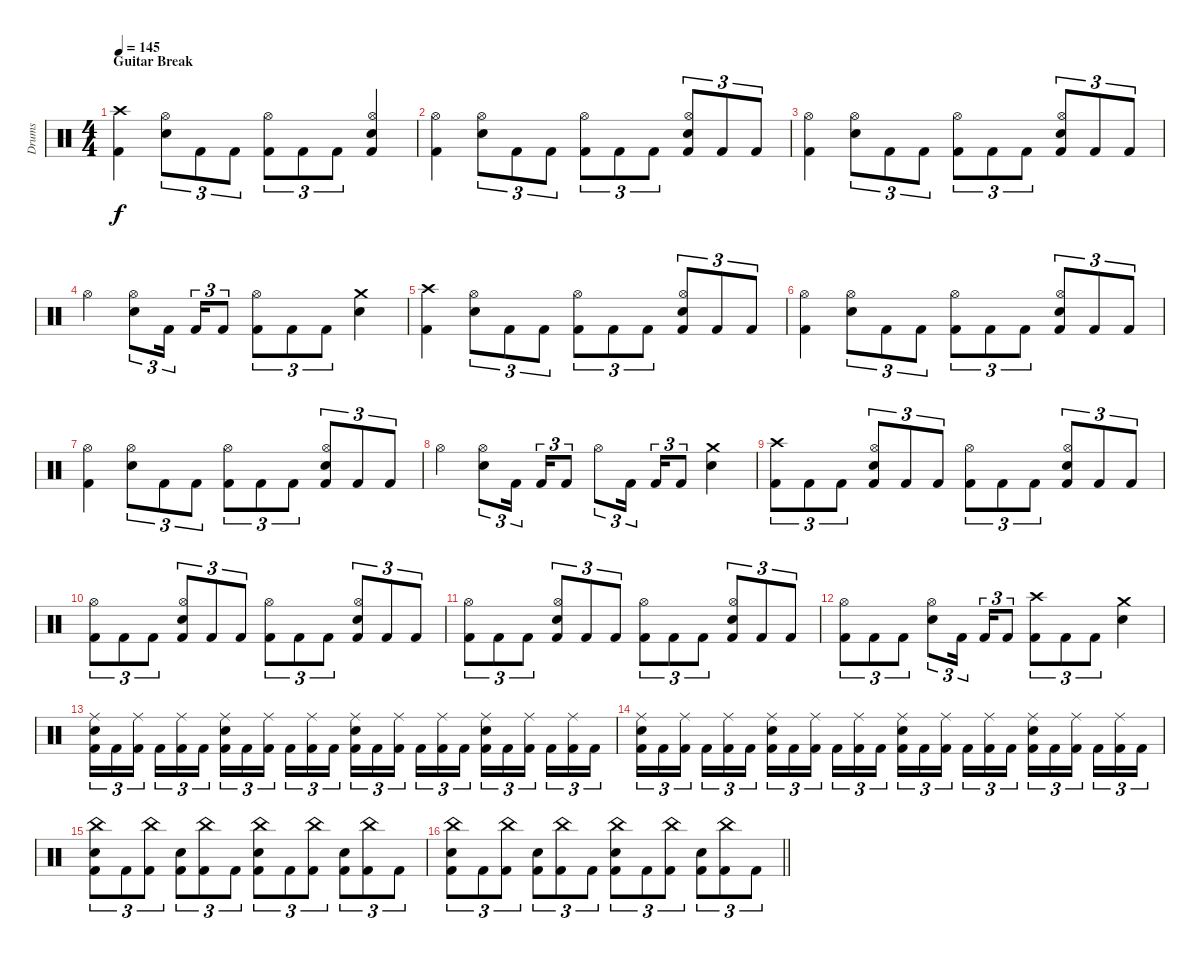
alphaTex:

\track ("Drums" "Drums") {instrument percussion}
\staff {score}
\articulation defaults
\ts (4 4)
\section ("" "Guitar Break")
\tempo 145
\clef neutral
\ks c
("Crash high (hit)" "Kick (hit) 2").4{dy f} ("Hi-Hat (open)" "Electric Snare (hit)").8{tu (3 2)} "Kick (hit) 2".8{tu (3 2)} "Kick (hit) 2".8{tu (3 2)} ("Hi-Hat (open)" "Kick (hit) 2").8{tu (3 2)} "Kick (hit) 2".8{tu (3 2)} "Kick (hit) 2".8{tu (3 2)} ("Hi-Hat (open)" "Electric Snare (hit)" "Kick (hit) 2").4 |
("Hi-Hat (open)" "Kick (hit) 2").4 ("Hi-Hat (open)" "Electric Snare (hit)").8{tu (3 2)} "Kick (hit) 2".8{tu (3 2)} "Kick (hit) 2".8{tu (3 2)} ("Hi-Hat (open)" "Kick (hit) 2").8{tu (3 2)} "Kick (hit) 2".8{tu (3 2)} "Kick (hit) 2".8{tu (3 2)} ("Hi-Hat (open)" "Electric Snare (hit)" "Kick (hit) 2").8{tu (3 2)} "Kick (hit) 2".8{tu (3 2)} "Kick (hit) 2".8{tu (3 2)} |
("Hi-Hat (open)" "Kick (hit) 2").4 ("Hi-Hat (open)" "Electric Snare (hit)").8{tu (3 2)} "Kick (hit) 2".8{tu (3 2)} "Kick (hit) 2".8{tu (3 2)} ("Hi-Hat (open)" "Kick (hit) 2").8{tu (3 2)} "Kick (hit) 2".8{tu (3 2)} "Kick (hit) 2".8{tu (3 2)} ("Hi-Hat (open)" "Electric Snare (hit)" "Kick (hit) 2").8{tu (3 2)} "Kick (hit) 2".8{tu (3 2)} "Kick (hit) 2".8{tu (3 2)} |
"Hi-Hat (open)".4 ("Hi-Hat (open)" "Electric Snare (hit)").8{tu (3 2)} "Kick (hit) 2".16{tu (3 2) beam splitsecondary} "Kick (hit) 2".16{tu (3 2)} "Kick (hit) 2".8{tu (3 2)} ("Hi-Hat (open)" "Kick (hit) 2").8{tu (3 2)} "Kick (hit) 2".8{tu (3 2)} "Kick (hit) 2".8{tu (3 2)} ("Crash medium (hit)" "Electric Snare (hit)").4 |
("Crash high (hit)" "Kick (hit) 2").4 ("Hi-Hat (open)" "Electric Snare (hit)").8{tu (3 2)} "Kick (hit) 2".8{tu (3 2)} "Kick (hit) 2".8{tu (3 2)} ("Hi-Hat (open)" "Kick (hit) 2").8{tu (3 2)} "Kick (hit) 2".8{tu (3 2)} "Kick (hit) 2".8{tu (3 2)} ("Hi-Hat (open)" "Electric Snare (hit)" "Kick (hit) 2").8{tu (3 2)} "Kick (hit) 2".8{tu (3 2)} "Kick (hit) 2".8{tu (3 2)} |
("Hi-Hat (open)" "Kick (hit) 2").4 ("Hi-Hat (open)" "Electric Snare (hit)").8{tu (3 2)} "Kick (hit) 2".8{tu (3 2)} "Kick (hit) 2".8{tu (3 2)} ("Hi-Hat (open)" "Kick (hit) 2").8{tu (3 2)} "Kick (hit) 2".8{tu (3 2)} "Kick (hit) 2".8{tu (3 2)} ("Hi-Hat (open)" "Electric Snare (hit)" "Kick (hit) 2").8{tu (3 2)} "Kick (hit) 2".8{tu (3 2)} "Kick (hit) 2".8{tu (3 2)} |
("Hi-Hat (open)" "Kick (hit) 2").4 ("Hi-Hat (open)" "Electric Snare (hit)").8{tu (3 2)} "Kick (hit) 2".8{tu (3 2)} "Kick (hit) 2".8{tu (3 2)} ("Hi-Hat (open)" "Kick (hit) 2").8{tu (3 2)} "Kick (hit) 2".8{tu (3 2)} "Kick (hit) 2".8{tu (3 2)} ("Hi-Hat (open)" "Electric Snare (hit)" "Kick (hit) 2").8{tu (3 2)} "Kick (hit) 2".8{tu (3 2)} "Kick (hit) 2".8{tu (3 2)} |
"Hi-Hat (open)".4 ("Hi-Hat (open)" "Electric Snare (hit)").8{tu (3 2)} "Kick (hit) 2".16{tu (3 2) beam splitsecondary} "Kick (hit) 2".16{tu (3 2)} "Kick (hit) 2".8{tu (3 2)} "Hi-Hat (open)".8{tu (3 2)} "Kick (hit) 2".16{tu (3 2) beam splitsecondary} "Kick (hit) 2".16{tu (3 2)} "Kick (hit) 2".8{tu (3 2)} ("Crash medium (hit)" "Electric Snare (hit)").4 |
("Crash high (hit)" "Kick (hit) 2").8{tu (3 2)} "Kick (hit) 2".8{tu (3 2)} "Kick (hit) 2".8{tu (3 2)} ("Hi-Hat (open)" "Electric Snare (hit)" "Kick (hit) 2").8{tu (3 2)} "Kick (hit) 2".8{tu (3 2)} "Kick (hit) 2".8{tu (3 2)} ("Hi-Hat (open)" "Kick (hit) 2").8{tu (3 2)} "Kick (hit) 2".8{tu (3 2)} "Kick (hit) 2".8{tu (3 2)} ("Hi-Hat (open)" "Electric Snare (hit)" "Kick (hit) 2").8{tu (3 2)} "Kick (hit) 2".8{tu (3 2)} "Kick (hit) 2".8{tu (3 2)} |
("Hi-Hat (open)" "Kick (hit) 2").8{tu (3 2)} "Kick (hit) 2".8{tu (3 2)} "Kick (hit) 2".8{tu (3 2)} ("Hi-Hat (open)" "Electric Snare (hit)" "Kick (hit) 2").8{tu (3 2)} "Kick (hit) 2".8{tu (3 2)} "Kick (hit) 2".8{tu (3 2)} ("Hi-Hat (open)" "Kick (hit) 2").8{tu (3 2)} "Kick (hit) 2".8{tu (3 2)} "Kick (hit) 2".8{tu (3 2)} ("Hi-Hat (open)" "Electric Snare (hit)" "Kick (hit) 2").8{tu (3 2)} "Kick (hit) 2".8{tu (3 2)} "Kick (hit) 2".8{tu (3 2)} |
("Hi-Hat (open)" "Kick (hit) 2").8{tu (3 2)} "Kick (hit) 2".8{tu (3 2)} "Kick (hit) 2".8{tu (3 2)} ("Hi-Hat (open)" "Electric Snare (hit)" "Kick (hit) 2").8{tu (3 2)} "Kick (hit) 2".8{tu (3 2)} "Kick (hit) 2".8{tu (3 2)} ("Hi-Hat (open)" "Kick (hit) 2").8{tu (3 2)} "Kick (hit) 2".8{tu (3 2)} "Kick (hit) 2".8{tu (3 2)} ("Hi-Hat (open)" "Electric Snare (hit)" "Kick (hit) 2").8{tu (3 2)} "Kick (hit) 2".8{tu (3 2)} "Kick (hit) 2".8{tu (3 2)} |
("Hi-Hat (open)" "Kick (hit) 2").8{tu (3 2)} "Kick (hit) 2".8{tu (3 2)} "Kick (hit) 2".8{tu (3 2)} ("Hi-Hat (open)" "Electric Snare (hit)").8{tu (3 2)} "Kick (hit) 2".16{tu (3 2) beam splitsecondary} "Kick (hit) 2".16{tu (3 2)} "Kick (hit) 2".8{tu (3 2)} ("Crash high (hit)" "Kick (hit) 2").8{tu (3 2)} "Kick (hit) 2".8{tu (3 2)} "Kick (hit) 2".8{tu (3 2)} ("Crash medium (hit)" "Electric Snare (hit)").4 |
("Ride (middle)" "Electric Snare (hit)" "Kick (hit) 2").16{tu (3 2)} "Kick (hit) 2".16{tu (3 2)} ("Ride (middle)" "Kick (hit) 2").16{tu (3 2) beam splitsecondary} "Kick (hit) 2".16{tu (3 2)} ("Ride (middle)" "Kick (hit) 2").16{tu (3 2)} "Kick (hit) 2".16{tu (3 2)} ("Ride (middle)" "Electric Snare (hit)" "Kick (hit) 2").16{tu (3 2)} "Kick (hit) 2".16{tu (3 2)} ("Ride (middle)" "Kick (hit) 2").16{tu (3 2) beam splitsecondary} "Kick (hit) 2".16{tu (3 2)} ("Ride (middle)" "Kick (hit) 2").16{tu (3 2)} "Kick (hit) 2".16{tu (3 2)} ("Ride (middle)" "Electric Snare (hit)" "Kick (hit) 2").16{tu (3 2)} "Kick (hit) 2".16{tu (3 2)} ("Ride (middle)" "Kick (hit) 2").16{tu (3 2) beam splitsecondary} "Kick (hit) 2".16{tu (3 2)} ("Ride (middle)" "Kick (hit) 2").16{tu (3 2)} "Kick (hit) 2".16{tu (3 2)} ("Ride (middle)" "Electric Snare (hit)" "Kick (hit) 2").16{tu (3 2)} "Kick (hit) 2".16{tu (3 2)} ("Ride (middle)" "Kick (hit) 2").16{tu (3 2) beam splitsecondary} "Kick (hit) 2".16{tu (3 2)} ("Ride (middle)" "Kick (hit) 2").16{tu (3 2)} "Kick (hit) 2".16{tu (3 2)} |
("Ride (middle)" "Electric Snare (hit)" "Kick (hit) 2").16{tu (3 2)} "Kick (hit) 2".16{tu (3 2)} ("Ride (middle)" "Kick (hit) 2").16{tu (3 2) beam splitsecondary} "Kick (hit) 2".16{tu (3 2)} ("Ride (middle)" "Kick (hit) 2").16{tu (3 2)} "Kick (hit) 2".16{tu (3 2)} ("Ride (middle)" "Electric Snare (hit)" "Kick (hit) 2").16{tu (3 2)} "Kick (hit) 2".16{tu (3 2)} ("Ride (middle)" "Kick (hit) 2").16{tu (3 2) beam splitsecondary} "Kick (hit) 2".16{tu (3 2)} ("Ride (middle)" "Kick (hit) 2").16{tu (3 2)} "Kick (hit) 2".16{tu (3 2)} ("Ride (middle)" "Electric Snare (hit)" "Kick (hit) 2").16{tu (3 2)} "Kick (hit) 2".16{tu (3 2)} ("Ride (middle)" "Kick (hit) 2").16{tu (3 2) beam splitsecondary} "Kick (hit) 2".16{tu (3 2)} ("Ride (middle)" "Kick (hit) 2").16{tu (3 2)} "Kick (hit) 2".16{tu (3 2)} ("Ride (middle)" "Electric Snare (hit)" "Kick (hit) 2").16{tu (3 2)} "Kick (hit) 2".16{tu (3 2)} ("Ride (middle)" "Kick (hit) 2").16{tu (3 2) beam splitsecondary} "Kick (hit) 2".16{tu (3 2)} ("Ride (middle)" "Kick (hit) 2").16{tu (3 2)} "Kick (hit) 2".16{tu (3 2)} |
("China (hit)" "Electric Snare (hit)" "Kick (hit) 2").8{tu (3 2)} "Kick (hit) 2".8{tu (3 2)} ("China (hit)" "Kick (hit) 2").8{tu (3 2)} ("Electric Snare (hit)" "Kick (hit) 2").8{tu (3 2)} ("China (hit)" "Kick (hit) 2").8{tu (3 2)} "Kick (hit) 2".8{tu (3 2)} ("China (hit)" "Electric Snare (hit)" "Kick (hit) 2").8{tu (3 2)} "Kick (hit) 2".8{tu (3 2)} ("China (hit)" "Kick (hit) 2").8{tu (3 2)} ("Electric Snare (hit)" "Kick (hit) 2").8{tu (3 2)} ("China (hit)" "Kick (hit) 2").8{tu (3 2)} "Kick (hit) 2".8{tu (3 2)} |
\barLineRight lightlight
("China (hit)" "Electric Snare (hit)" "Kick (hit) 2").8{tu (3 2)} "Kick (hit) 2".8{tu (3 2)} ("China (hit)" "Kick (hit) 2").8{tu (3 2)} ("Electric Snare (hit)" "Kick (hit) 2").8{tu (3 2)} ("China (hit)" "Kick (hit) 2").8{tu (3 2)} "Kick (hit) 2".8{tu (3 2)} ("China (hit)" "Electric Snare (hit)" "Kick (hit) 2").8{tu (3 2)} "Kick (hit) 2".8{tu (3 2)} ("China (hit)" "Kick (hit) 2").8{tu (3 2)} ("Electric Snare (hit)" "Kick (hit) 2").8{tu (3 2)} ("China (hit)" "Kick (hit) 2").8{tu (3 2)} "Kick (hit) 2".8{tu (3 2)}
